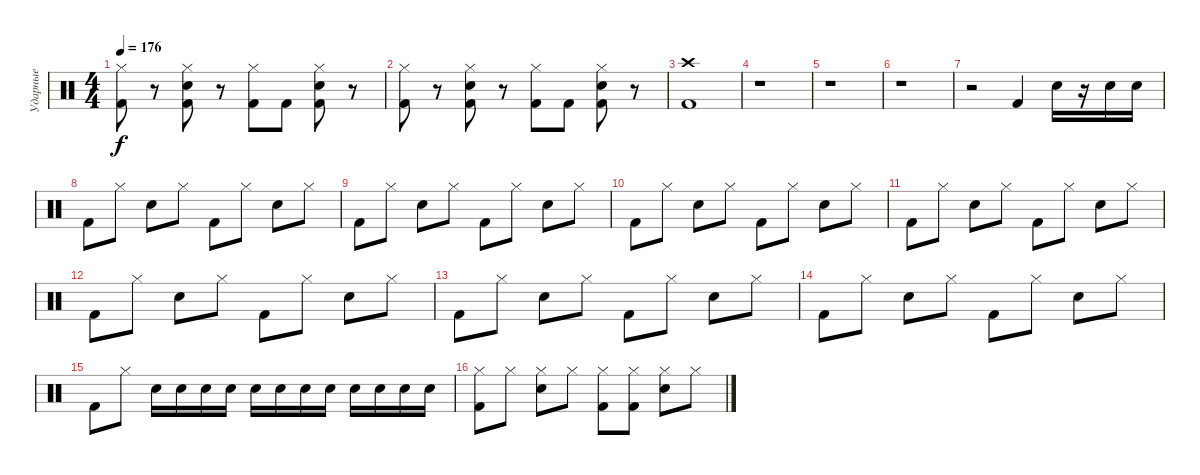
\track ("Ударные" "Ударные") {instrument percussion}
\staff {score}
\articulation defaults
\ts (4 4)
\tempo 176
\clef neutral
\ks c
("Hi-Hat (closed)" "Kick (hit) 2").8{dy f} r.8 ("Hi-Hat (closed)" "Kick (hit) 2" "Snare (hit) 2").8 r.8 ("Hi-Hat (closed)" "Kick (hit) 2").8 "Kick (hit) 2".8 ("Hi-Hat (closed)" "Kick (hit) 2" "Snare (hit) 2").8 r.8 |
("Hi-Hat (closed)" "Kick (hit) 2").8 r.8 ("Hi-Hat (closed)" "Kick (hit) 2" "Snare (hit) 2").8 r.8 ("Hi-Hat (closed)" "Kick (hit) 2").8 "Kick (hit) 2".8 ("Hi-Hat (closed)" "Kick (hit) 2" "Snare (hit) 2").8 r.8 |
("Crash high (hit)" "Kick (hit) 2").1 |
r.1 |
r.1 |
r.1 |
r.2 "Kick (hit) 2".4 "Snare (hit) 2".16 r.16 "Snare (hit) 2".16 "Snare (hit) 2".16 |
"Kick (hit) 2".8 "Hi-Hat (closed)".8 "Snare (hit) 2".8 "Hi-Hat (closed)".8 "Kick (hit) 2".8 "Hi-Hat (closed)".8 "Snare (hit) 2".8 "Hi-Hat (closed)".8 |
"Kick (hit) 2".8 "Hi-Hat (closed)".8 "Snare (hit) 2".8 "Hi-Hat (closed)".8 "Kick (hit) 2".8 "Hi-Hat (closed)".8 "Snare (hit) 2".8 "Hi-Hat (closed)".8 |
"Kick (hit) 2".8 "Hi-Hat (closed)".8 "Snare (hit) 2".8 "Hi-Hat (closed)".8 "Kick (hit) 2".8 "Hi-Hat (closed)".8 "Snare (hit) 2".8 "Hi-Hat (closed)".8 |
"Kick (hit) 2".8 "Hi-Hat (closed)".8 "Snare (hit) 2".8 "Hi-Hat (closed)".8 "Kick (hit) 2".8 "Hi-Hat (closed)".8 "Snare (hit) 2".8 "Hi-Hat (closed)".8 |
"Kick (hit) 2".8 "Hi-Hat (closed)".8 "Snare (hit) 2".8 "Hi-Hat (closed)".8 "Kick (hit) 2".8 "Hi-Hat (closed)".8 "Snare (hit) 2".8 "Hi-Hat (closed)".8 |
"Kick (hit) 2".8 "Hi-Hat (closed)".8 "Snare (hit) 2".8 "Hi-Hat (closed)".8 "Kick (hit) 2".8 "Hi-Hat (closed)".8 "Snare (hit) 2".8 "Hi-Hat (closed)".8 |
"Kick (hit) 2".8 "Hi-Hat (closed)".8 "Snare (hit) 2".8 "Hi-Hat (closed)".8 "Kick (hit) 2".8 "Hi-Hat (closed)".8 "Snare (hit) 2".8 "Hi-Hat (closed)".8 |
"Kick (hit) 2".8 "Hi-Hat (closed)".8 "Snare (hit) 2".16 "Snare (hit) 2".16 "Snare (hit) 2".16 "Snare (hit) 2".16 "Snare (hit) 2".16 "Snare (hit) 2".16 "Snare (hit) 2".16 "Snare (hit) 2".16 "Snare (hit) 2".16 "Snare (hit) 2".16 "Snare (hit) 2".16 "Snare (hit) 2".16 |
("Hi-Hat (closed)" "Kick (hit) 2").8 "Hi-Hat (closed)".8 ("Hi-Hat (closed)" "Snare (hit) 2").8 "Hi-Hat (closed)".8 ("Hi-Hat (closed)" "Kick (hit) 2").8 ("Hi-Hat (closed)" "Kick (hit) 2").8 ("Hi-Hat (closed)" "Snare (hit) 2").8 "Hi-Hat (closed)".8
